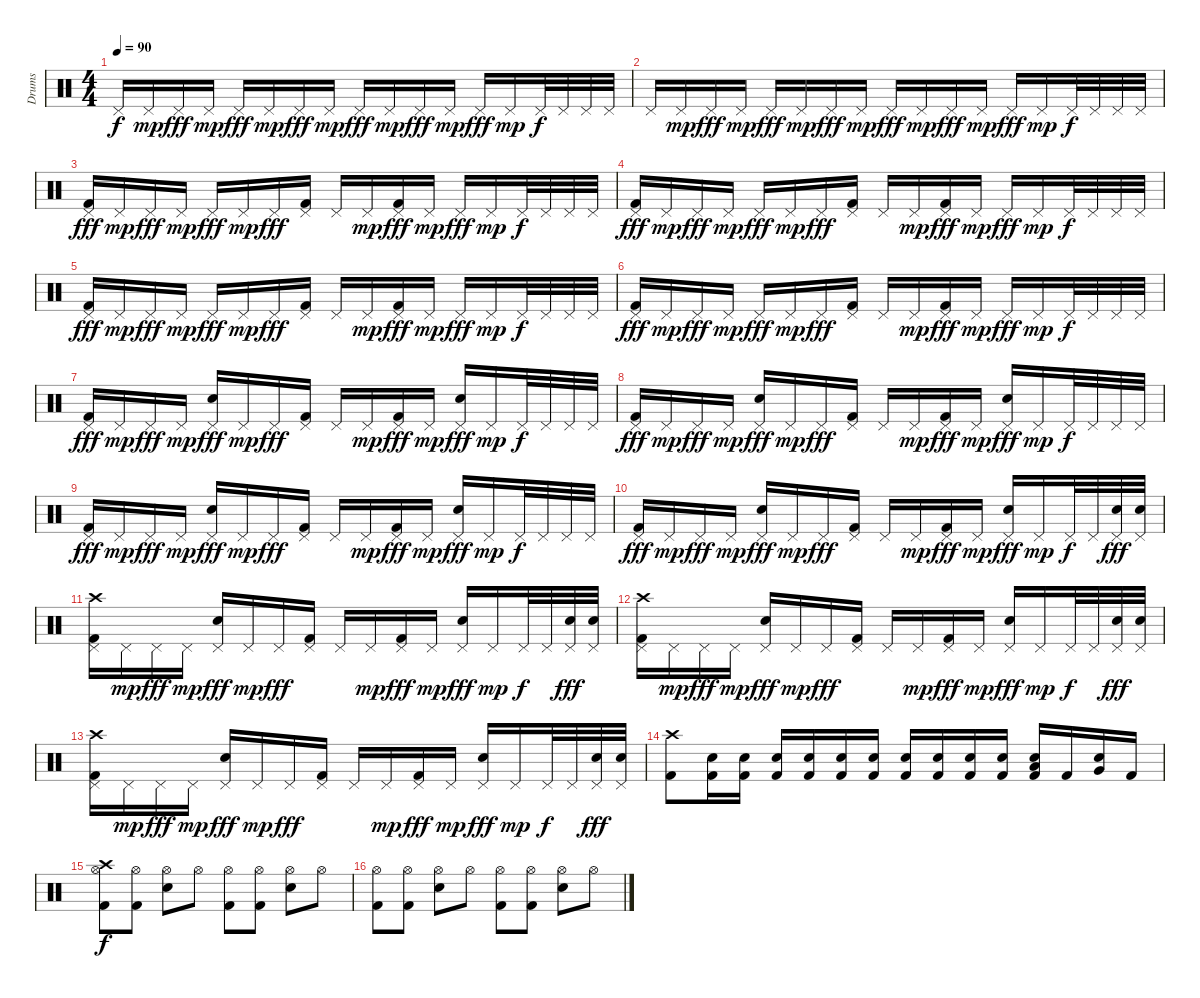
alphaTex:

\track ("Drums" "Drums") {instrument percussion}
\staff {score}
\articulation defaults
\ts (4 4)
\tempo 90
\clef neutral
\ks c "Pedal Hi-Hat (hit)".16{dy f} "Pedal Hi-Hat (hit)".16{dy mp} "Pedal Hi-Hat (hit)".16{dy fff} "Pedal Hi-Hat (hit)".16{dy mp} "Pedal Hi-Hat (hit)".16{dy fff} "Pedal Hi-Hat (hit)".16{dy mp} "Pedal Hi-Hat (hit)".16{dy fff} "Pedal Hi-Hat (hit)".16{dy mp} "Pedal Hi-Hat (hit)".16{dy fff} "Pedal Hi-Hat (hit)".16{dy mp} "Pedal Hi-Hat (hit)".16{dy fff} "Pedal Hi-Hat (hit)".16{dy mp} "Pedal Hi-Hat (hit)".16{dy fff} "Pedal Hi-Hat (hit)".16{dy mp} "Pedal Hi-Hat (hit)".32{dy f} "Pedal Hi-Hat (hit)".32 "Pedal Hi-Hat (hit)".32 "Pedal Hi-Hat (hit)".32
|
"Pedal Hi-Hat (hit)".16 "Pedal Hi-Hat (hit)".16{dy mp} "Pedal Hi-Hat (hit)".16{dy fff} "Pedal Hi-Hat (hit)".16{dy mp} "Pedal Hi-Hat (hit)".16{dy fff} "Pedal Hi-Hat (hit)".16{dy mp} "Pedal Hi-Hat (hit)".16{dy fff} "Pedal Hi-Hat (hit)".16{dy mp} "Pedal Hi-Hat (hit)".16{dy fff} "Pedal Hi-Hat (hit)".16{dy mp} "Pedal Hi-Hat (hit)".16{dy fff} "Pedal Hi-Hat (hit)".16{dy mp} "Pedal Hi-Hat (hit)".16{dy fff} "Pedal Hi-Hat (hit)".16{dy mp} "Pedal Hi-Hat (hit)".32{dy f} "Pedal Hi-Hat (hit)".32 "Pedal Hi-Hat (hit)".32 "Pedal Hi-Hat (hit)".32 |
("Pedal Hi-Hat (hit)" "Kick (hit) 2").16{dy fff} "Pedal Hi-Hat (hit)".16{dy mp} "Pedal Hi-Hat (hit)".16{dy fff} "Pedal Hi-Hat (hit)".16{dy mp} "Pedal Hi-Hat (hit)".16{dy fff} "Pedal Hi-Hat (hit)".16{dy mp} "Pedal Hi-Hat (hit)".16{dy fff} ("Pedal Hi-Hat (hit)" "Kick (hit) 2").16 "Pedal Hi-Hat (hit)".16 "Pedal Hi-Hat (hit)".16{dy mp} ("Pedal Hi-Hat (hit)" "Kick (hit) 2").16{dy fff} "Pedal Hi-Hat (hit)".16{dy mp} "Pedal Hi-Hat (hit)".16{dy fff} "Pedal Hi-Hat (hit)".16{dy mp} "Pedal Hi-Hat (hit)".32{dy f} "Pedal Hi-Hat (hit)".32 "Pedal Hi-Hat (hit)".32 "Pedal Hi-Hat (hit)".32 |
("Pedal Hi-Hat (hit)" "Kick (hit) 2").16{dy fff} "Pedal Hi-Hat (hit)".16{dy mp} "Pedal Hi-Hat (hit)".16{dy fff} "Pedal Hi-Hat (hit)".16{dy mp} "Pedal Hi-Hat (hit)".16{dy fff} "Pedal Hi-Hat (hit)".16{dy mp} "Pedal Hi-Hat (hit)".16{dy fff} ("Pedal Hi-Hat (hit)" "Kick (hit) 2").16 "Pedal Hi-Hat (hit)".16 "Pedal Hi-Hat (hit)".16{dy mp} ("Pedal Hi-Hat (hit)" "Kick (hit) 2").16{dy fff} "Pedal Hi-Hat (hit)".16{dy mp} "Pedal Hi-Hat (hit)".16{dy fff} "Pedal Hi-Hat (hit)".16{dy mp} "Pedal Hi-Hat (hit)".32{dy f} "Pedal Hi-Hat (hit)".32 "Pedal Hi-Hat (hit)".32 "Pedal Hi-Hat (hit)".32 |
("Pedal Hi-Hat (hit)" "Kick (hit) 2").16{dy fff} "Pedal Hi-Hat (hit)".16{dy mp} "Pedal Hi-Hat (hit)".16{dy fff} "Pedal Hi-Hat (hit)".16{dy mp} "Pedal Hi-Hat (hit)".16{dy fff} "Pedal Hi-Hat (hit)".16{dy mp} "Pedal Hi-Hat (hit)".16{dy fff} ("Pedal Hi-Hat (hit)" "Kick (hit) 2").16 "Pedal Hi-Hat (hit)".16 "Pedal Hi-Hat (hit)".16{dy mp} ("Pedal Hi-Hat (hit)" "Kick (hit) 2").16{dy fff} "Pedal Hi-Hat (hit)".16{dy mp} "Pedal Hi-Hat (hit)".16{dy fff} "Pedal Hi-Hat (hit)".16{dy mp} "Pedal Hi-Hat (hit)".32{dy f} "Pedal Hi-Hat (hit)".32 "Pedal Hi-Hat (hit)".32 "Pedal Hi-Hat (hit)".32 |
("Pedal Hi-Hat (hit)" "Kick (hit) 2").16{dy fff} "Pedal Hi-Hat (hit)".16{dy mp} "Pedal Hi-Hat (hit)".16{dy fff} "Pedal Hi-Hat (hit)".16{dy mp} "Pedal Hi-Hat (hit)".16{dy fff} "Pedal Hi-Hat (hit)".16{dy mp} "Pedal Hi-Hat (hit)".16{dy fff} ("Pedal Hi-Hat (hit)" "Kick (hit) 2").16 "Pedal Hi-Hat (hit)".16 "Pedal Hi-Hat (hit)".16{dy mp} ("Pedal Hi-Hat (hit)" "Kick (hit) 2").16{dy fff} "Pedal Hi-Hat (hit)".16{dy mp} "Pedal Hi-Hat (hit)".16{dy fff} "Pedal Hi-Hat (hit)".16{dy mp} "Pedal Hi-Hat (hit)".32{dy f} "Pedal Hi-Hat (hit)".32 "Pedal Hi-Hat (hit)".32 "Pedal Hi-Hat (hit)".32 |
("Pedal Hi-Hat (hit)" "Kick (hit) 2").16{dy fff} "Pedal Hi-Hat (hit)".16{dy mp} "Pedal Hi-Hat (hit)".16{dy fff} "Pedal Hi-Hat (hit)".16{dy mp} ("Pedal Hi-Hat (hit)" "Electric Snare (hit)").16{dy fff} "Pedal Hi-Hat (hit)".16{dy mp} "Pedal Hi-Hat (hit)".16{dy fff} ("Pedal Hi-Hat (hit)" "Kick (hit) 2").16 "Pedal Hi-Hat (hit)".16 "Pedal Hi-Hat (hit)".16{dy mp} ("Pedal Hi-Hat (hit)" "Kick (hit) 2").16{dy fff} "Pedal Hi-Hat (hit)".16{dy mp} ("Pedal Hi-Hat (hit)" "Electric Snare (hit)").16{dy fff} "Pedal Hi-Hat (hit)".16{dy mp} "Pedal Hi-Hat (hit)".32{dy f} "Pedal Hi-Hat (hit)".32 "Pedal Hi-Hat (hit)".32 "Pedal Hi-Hat (hit)".32 |
("Pedal Hi-Hat (hit)" "Kick (hit) 2").16{dy fff} "Pedal Hi-Hat (hit)".16{dy mp} "Pedal Hi-Hat (hit)".16{dy fff} "Pedal Hi-Hat (hit)".16{dy mp} ("Pedal Hi-Hat (hit)" "Electric Snare (hit)").16{dy fff} "Pedal Hi-Hat (hit)".16{dy mp} "Pedal Hi-Hat (hit)".16{dy fff} ("Pedal Hi-Hat (hit)" "Kick (hit) 2").16 "Pedal Hi-Hat (hit)".16 "Pedal Hi-Hat (hit)".16{dy mp} ("Pedal Hi-Hat (hit)" "Kick (hit) 2").16{dy fff} "Pedal Hi-Hat (hit)".16{dy mp} ("Pedal Hi-Hat (hit)" "Electric Snare (hit)").16{dy fff} "Pedal Hi-Hat (hit)".16{dy mp} "Pedal Hi-Hat (hit)".32{dy f} "Pedal Hi-Hat (hit)".32 "Pedal Hi-Hat (hit)".32 "Pedal Hi-Hat (hit)".32 |
("Pedal Hi-Hat (hit)" "Kick (hit) 2").16{dy fff} "Pedal Hi-Hat (hit)".16{dy mp} "Pedal Hi-Hat (hit)".16{dy fff} "Pedal Hi-Hat (hit)".16{dy mp} ("Pedal Hi-Hat (hit)" "Electric Snare (hit)").16{dy fff} "Pedal Hi-Hat (hit)".16{dy mp} "Pedal Hi-Hat (hit)".16{dy fff} ("Pedal Hi-Hat (hit)" "Kick (hit) 2").16 "Pedal Hi-Hat (hit)".16 "Pedal Hi-Hat (hit)".16{dy mp} ("Pedal Hi-Hat (hit)" "Kick (hit) 2").16{dy fff} "Pedal Hi-Hat (hit)".16{dy mp} ("Pedal Hi-Hat (hit)" "Electric Snare (hit)").16{dy fff} "Pedal Hi-Hat (hit)".16{dy mp} "Pedal Hi-Hat (hit)".32{dy f} "Pedal Hi-Hat (hit)".32 "Pedal Hi-Hat (hit)".32 "Pedal Hi-Hat (hit)".32 |
("Pedal Hi-Hat (hit)" "Kick (hit) 2").16{dy fff} "Pedal Hi-Hat (hit)".16{dy mp} "Pedal Hi-Hat (hit)".16{dy fff} "Pedal Hi-Hat (hit)".16{dy mp} ("Pedal Hi-Hat (hit)" "Electric Snare (hit)").16{dy fff} "Pedal Hi-Hat (hit)".16{dy mp} "Pedal Hi-Hat (hit)".16{dy fff} ("Pedal Hi-Hat (hit)" "Kick (hit) 2").16 "Pedal Hi-Hat (hit)".16 "Pedal Hi-Hat (hit)".16{dy mp} ("Pedal Hi-Hat (hit)" "Kick (hit) 2").16{dy fff} "Pedal Hi-Hat (hit)".16{dy mp} ("Pedal Hi-Hat (hit)" "Electric Snare (hit)").16{dy fff} "Pedal Hi-Hat (hit)".16{dy mp} "Pedal Hi-Hat (hit)".32{dy f} "Pedal Hi-Hat (hit)".32 ("Pedal Hi-Hat (hit)" "Electric Snare (hit)").32{dy fff} ("Pedal Hi-Hat (hit)" "Electric Snare (hit)").32 |
("Crash high (hit)" "Pedal Hi-Hat (hit)" "Kick (hit) 2").16 "Pedal Hi-Hat (hit)".16{dy mp} "Pedal Hi-Hat (hit)".16{dy fff} "Pedal Hi-Hat (hit)".16{dy mp} ("Pedal Hi-Hat (hit)" "Electric Snare (hit)").16{dy fff} "Pedal Hi-Hat (hit)".16{dy mp} "Pedal Hi-Hat (hit)".16{dy fff} ("Pedal Hi-Hat (hit)" "Kick (hit) 2").16 "Pedal Hi-Hat (hit)".16 "Pedal Hi-Hat (hit)".16{dy mp} ("Pedal Hi-Hat (hit)" "Kick (hit) 2").16{dy fff} "Pedal Hi-Hat (hit)".16{dy mp} ("Pedal Hi-Hat (hit)" "Electric Snare (hit)").16{dy fff} "Pedal Hi-Hat (hit)".16{dy mp} "Pedal Hi-Hat (hit)".32{dy f} "Pedal Hi-Hat (hit)".32 ("Pedal Hi-Hat (hit)" "Electric Snare (hit)").32{dy fff} ("Pedal Hi-Hat (hit)" "Electric Snare (hit)").32 |
("Crash high (hit)" "Pedal Hi-Hat (hit)" "Kick (hit) 2").16 "Pedal Hi-Hat (hit)".16{dy mp} "Pedal Hi-Hat (hit)".16{dy fff} "Pedal Hi-Hat (hit)".16{dy mp} ("Pedal Hi-Hat (hit)" "Electric Snare (hit)").16{dy fff} "Pedal Hi-Hat (hit)".16{dy mp} "Pedal Hi-Hat (hit)".16{dy fff} ("Pedal Hi-Hat (hit)" "Kick (hit) 2").16 "Pedal Hi-Hat (hit)".16 "Pedal Hi-Hat (hit)".16{dy mp} ("Pedal Hi-Hat (hit)" "Kick (hit) 2").16{dy fff} "Pedal Hi-Hat (hit)".16{dy mp} ("Pedal Hi-Hat (hit)" "Electric Snare (hit)").16{dy fff} "Pedal Hi-Hat (hit)".16{dy mp} "Pedal Hi-Hat (hit)".32{dy f} "Pedal Hi-Hat (hit)".32 ("Pedal Hi-Hat (hit)" "Electric Snare (hit)").32{dy fff} ("Pedal Hi-Hat (hit)" "Electric Snare (hit)").32 |
("Crash high (hit)" "Pedal Hi-Hat (hit)" "Kick (hit) 2").16 "Pedal Hi-Hat (hit)".16{dy mp} "Pedal Hi-Hat (hit)".16{dy fff} "Pedal Hi-Hat (hit)".16{dy mp} ("Pedal Hi-Hat (hit)" "Electric Snare (hit)").16{dy fff} "Pedal Hi-Hat (hit)".16{dy mp} "Pedal Hi-Hat (hit)".16{dy fff} ("Pedal Hi-Hat (hit)" "Kick (hit) 2").16 "Pedal Hi-Hat (hit)".16 "Pedal Hi-Hat (hit)".16{dy mp} ("Pedal Hi-Hat (hit)" "Kick (hit) 2").16{dy fff} "Pedal Hi-Hat (hit)".16{dy mp} ("Pedal Hi-Hat (hit)" "Electric Snare (hit)").16{dy fff} "Pedal Hi-Hat (hit)".16{dy mp} "Pedal Hi-Hat (hit)".32{dy f} "Pedal Hi-Hat (hit)".32 ("Pedal Hi-Hat (hit)" "Electric Snare (hit)").32{dy fff} ("Pedal Hi-Hat (hit)" "Electric Snare (hit)").32 |
("Crash high (hit)" "Kick (hit) 2").8 ("Kick (hit) 2" "Electric Snare (hit)").16 ("Kick (hit) 2" "Electric Snare (hit)").16 ("Kick (hit) 2" "Electric Snare (hit)").16 ("Kick (hit) 2" "Electric Snare (hit)").16 ("Kick (hit) 2" "Electric Snare (hit)").16 ("Kick (hit) 2" "Electric Snare (hit)").16 ("Kick (hit) 2" "Electric Snare (hit)").16 ("Kick (hit) 2" "Electric Snare (hit)").16 ("Kick (hit) 2" "Electric Snare (hit)").16 ("Kick (hit) 2" "Electric Snare (hit)").16 ("Kick (hit) 2" "Electric Snare (hit)" "Low Tom (hit)").16 "Kick (hit) 2".16 ("Electric Snare (hit)" "Very Low Tom (hit)").16 "Kick (hit) 2".16 |
("Crash high (hit)" "Hi-Hat (open)" "Kick (hit) 2").8{dy f} ("Hi-Hat (open)" "Kick (hit) 2").8 ("Hi-Hat (open)" "Electric Snare (hit)").8 "Hi-Hat (open)".8 ("Hi-Hat (open)" "Kick (hit) 2").8 ("Hi-Hat (open)" "Kick (hit) 2").8 ("Hi-Hat (open)" "Electric Snare (hit)").8 "Hi-Hat (open)".8 |
("Hi-Hat (open)" "Kick (hit) 2").8 ("Hi-Hat (open)" "Kick (hit) 2").8 ("Hi-Hat (open)" "Electric Snare (hit)").8 "Hi-Hat (open)".8 ("Hi-Hat (open)" "Kick (hit) 2").8 ("Hi-Hat (open)" "Kick (hit) 2").8 ("Hi-Hat (open)" "Electric Snare (hit)").8 "Hi-Hat (open)".8
